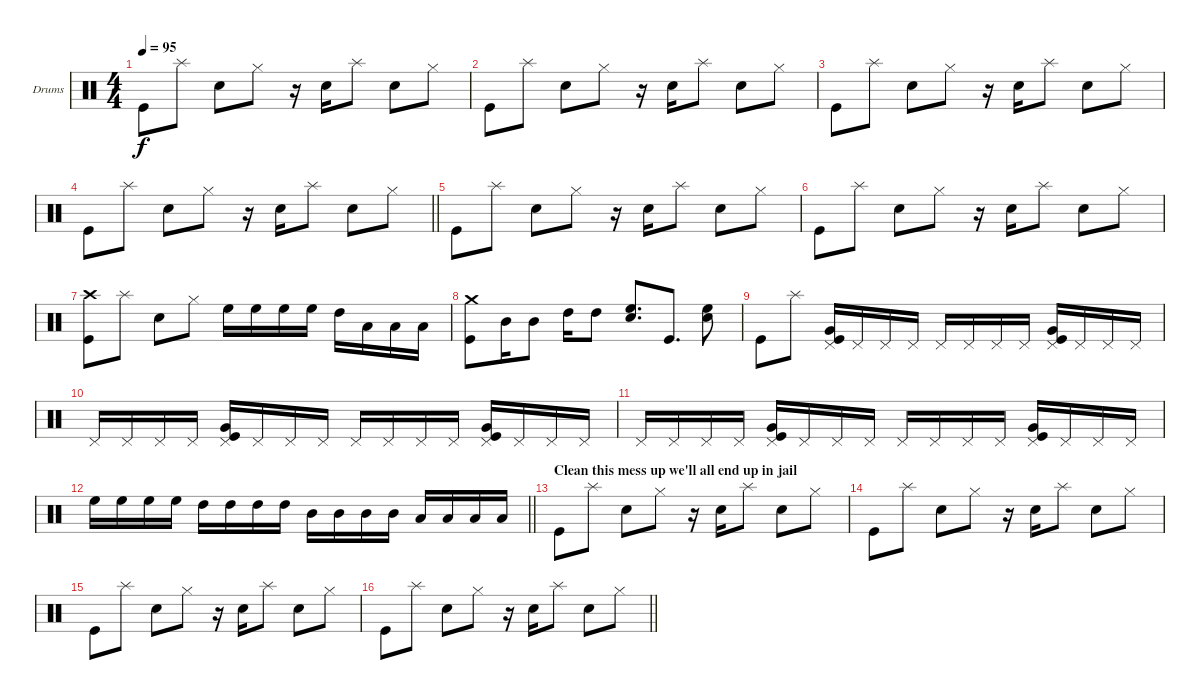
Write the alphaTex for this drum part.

\bracketExtendMode groupsimilarinstruments
\firstSystemTrackNameOrientation horizontal
\otherSystemsTrackNameOrientation horizontal
\track ("Drumkit" "Drums") {instrument percussion}
\staff {score}
\articulation defaults
\ts (4 4)
\tempo 95
\clef neutral
\ks c "Kick (hit)".8{dy f} "Splash (hit)".8 "Snare (hit) 2".8 "Hi-Hat (closed)".8
r.16 "Snare (hit) 2".16 "Splash (hit)".8 "Snare (hit) 2".8 "Hi-Hat (closed)".8 |
"Kick (hit)".8 "Splash (hit)".8 "Snare (hit) 2".8 "Hi-Hat (closed)".8 r.16 "Snare (hit) 2".16 "Splash (hit)".8 "Snare (hit) 2".8 "Hi-Hat (closed)".8 |
"Kick (hit)".8 "Splash (hit)".8 "Snare (hit) 2".8 "Hi-Hat (closed)".8 r.16 "Snare (hit) 2".16 "Splash (hit)".8 "Snare (hit) 2".8 "Hi-Hat (closed)".8 |
\barLineRight lightlight "Kick (hit)".8 "Splash (hit)".8 "Snare (hit) 2".8 "Hi-Hat (closed)".8
r.16 "Snare (hit) 2".16 "Splash (hit)".8 "Snare (hit) 2".8 "Hi-Hat (closed)".8 |
"Kick (hit)".8 "Splash (hit)".8 "Snare (hit) 2".8 "Hi-Hat (closed)".8 r.16 "Snare (hit) 2".16 "Splash (hit)".8 "Snare (hit) 2".8 "Hi-Hat (closed)".8 |
"Kick (hit)".8 "Splash (hit)".8 "Snare (hit) 2".8 "Hi-Hat (closed)".8 r.16 "Snare (hit) 2".16 "Splash (hit)".8 "Snare (hit) 2".8 "Hi-Hat (closed)".8 |
("Crash high (hit)" "Kick (hit)").8 "Splash (hit)".8 "Snare (hit) 2".8 "Hi-Hat (closed)".8 "High Floor Tom (hit)".16 "High Floor Tom (hit)".16 "High Floor Tom (hit)".16 "High Floor Tom (hit)".16 "High Tom (hit)".16 "Low Tom (hit)".16 "Low Tom (hit)".16 "Low Tom (hit)".16 |
("Crash medium (hit)" "Kick (hit)").8 "Mid Tom (hit)".16 "Mid Tom (hit)".8 "High Tom (hit)".16 "High Tom (hit)".8 ("Snare (hit) 2" "High Floor Tom (hit)").8{d} "Kick (hit)".8{d} ("Snare (hit) 2" "High Floor Tom (hit)").8 |
"Kick (hit)".8 "Splash (hit)".8 ("Pedal Hi-Hat (hit)" "Very Low Tom (hit)" "Kick (hit)").16 "Pedal Hi-Hat (hit)".16 "Pedal Hi-Hat (hit)".16 "Pedal Hi-Hat (hit)".16 "Pedal Hi-Hat (hit)".16 "Pedal Hi-Hat (hit)".16 "Pedal Hi-Hat (hit)".16 "Pedal Hi-Hat (hit)".16 ("Pedal Hi-Hat (hit)" "Very Low Tom (hit)" "Kick (hit)").16 "Pedal Hi-Hat (hit)".16 "Pedal Hi-Hat (hit)".16 "Pedal Hi-Hat (hit)".16 |
"Pedal Hi-Hat (hit)".16 "Pedal Hi-Hat (hit)".16 "Pedal Hi-Hat (hit)".16 "Pedal Hi-Hat (hit)".16 ("Pedal Hi-Hat (hit)" "Very Low Tom (hit)" "Kick (hit)").16 "Pedal Hi-Hat (hit)".16 "Pedal Hi-Hat (hit)".16 "Pedal Hi-Hat (hit)".16 "Pedal Hi-Hat (hit)".16 "Pedal Hi-Hat (hit)".16 "Pedal Hi-Hat (hit)".16 "Pedal Hi-Hat (hit)".16 ("Pedal Hi-Hat (hit)" "Very Low Tom (hit)" "Kick (hit)").16 "Pedal Hi-Hat (hit)".16 "Pedal Hi-Hat (hit)".16 "Pedal Hi-Hat (hit)".16 |
"Pedal Hi-Hat (hit)".16 "Pedal Hi-Hat (hit)".16 "Pedal Hi-Hat (hit)".16 "Pedal Hi-Hat (hit)".16 ("Pedal Hi-Hat (hit)" "Very Low Tom (hit)" "Kick (hit)").16 "Pedal Hi-Hat (hit)".16 "Pedal Hi-Hat (hit)".16 "Pedal Hi-Hat (hit)".16 "Pedal Hi-Hat (hit)".16 "Pedal Hi-Hat (hit)".16 "Pedal Hi-Hat (hit)".16 "Pedal Hi-Hat (hit)".16 ("Pedal Hi-Hat (hit)" "Very Low Tom (hit)" "Kick (hit)").16 "Pedal Hi-Hat (hit)".16 "Pedal Hi-Hat (hit)".16 "Pedal Hi-Hat (hit)".16 |
\barLineRight lightlight "High Floor Tom (hit)".16 "High Floor Tom (hit)".16 "High Floor Tom (hit)".16 "High Floor Tom (hit)".16 "High Tom (hit)".16 "High Tom (hit)".16 "High Tom (hit)".16 "High Tom (hit)".16 "Mid Tom (hit)".16 "Mid Tom (hit)".16 "Mid Tom (hit)".16 "Mid Tom (hit)".16 "Low Tom (hit)".16 "Low Tom (hit)".16 "Low Tom (hit)".16 "Low Tom (hit)".16
|
\section ("" "Clean this mess up we'll all end up in jail")
"Kick (hit)".8 "Splash (hit)".8 "Snare (hit) 2".8 "Hi-Hat (closed)".8 r.16 "Snare (hit) 2".16 "Splash (hit)".8 "Snare (hit) 2".8 "Hi-Hat (closed)".8 |
"Kick (hit)".8 "Splash (hit)".8 "Snare (hit) 2".8 "Hi-Hat (closed)".8 r.16 "Snare (hit) 2".16 "Splash (hit)".8 "Snare (hit) 2".8 "Hi-Hat (closed)".8 |
"Kick (hit)".8 "Splash (hit)".8 "Snare (hit) 2".8 "Hi-Hat (closed)".8 r.16 "Snare (hit) 2".16 "Splash (hit)".8 "Snare (hit) 2".8 "Hi-Hat (closed)".8 |
\barLineRight lightlight "Kick (hit)".8 "Splash (hit)".8 "Snare (hit) 2".8 "Hi-Hat (closed)".8
r.16 "Snare (hit) 2".16 "Splash (hit)".8 "Snare (hit) 2".8 "Hi-Hat (closed)".8
